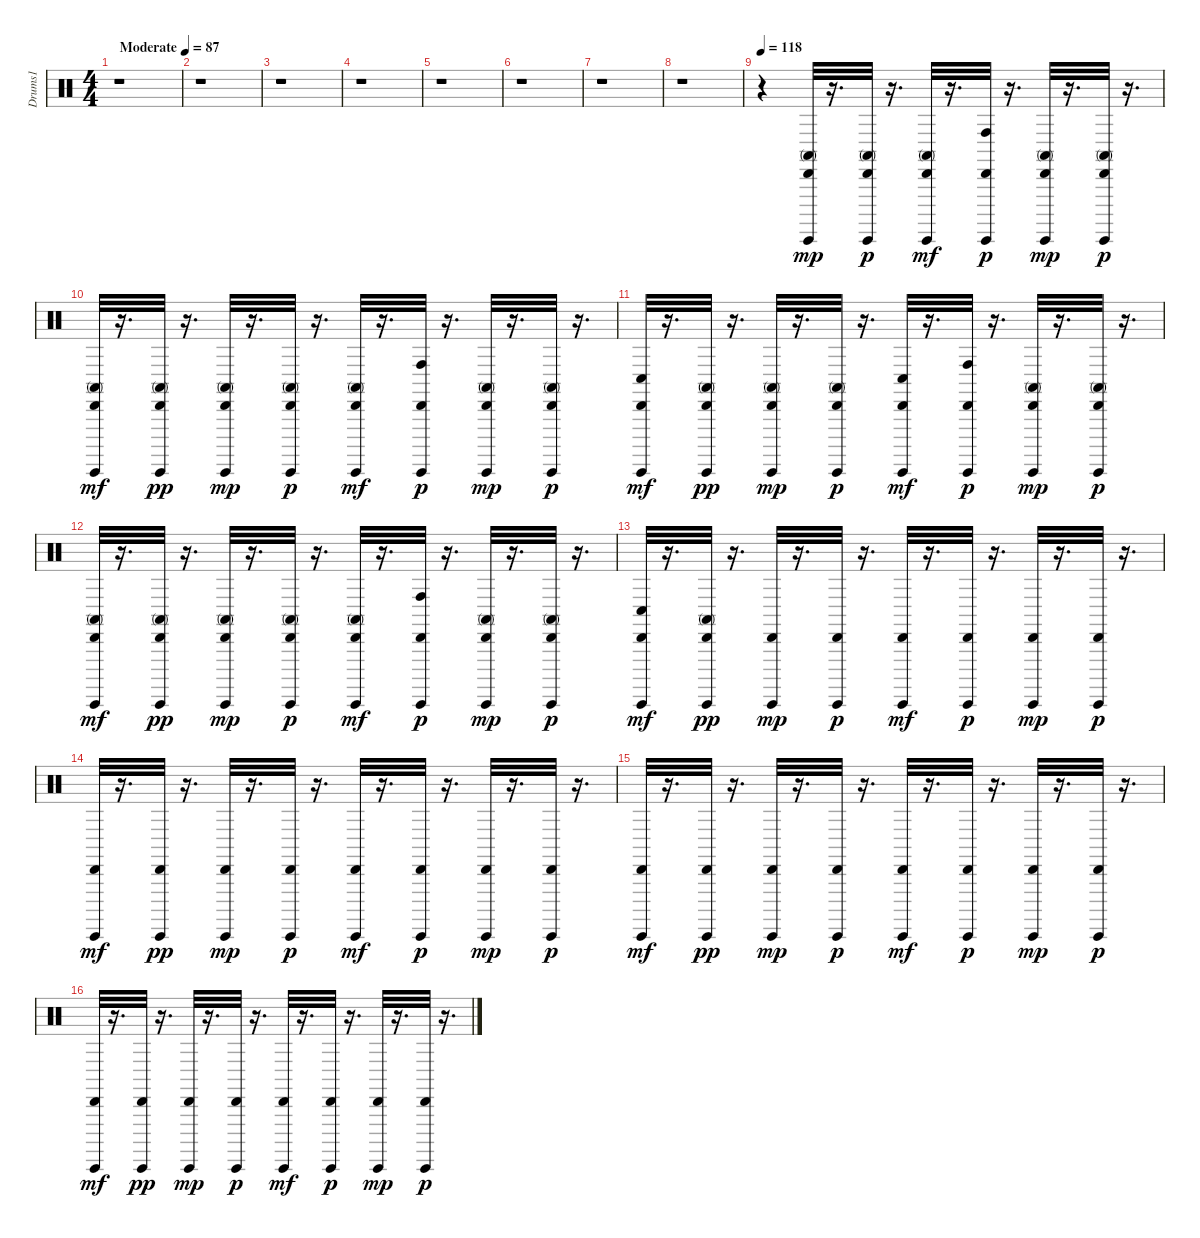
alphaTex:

\track ("Drums1" "Drums1") {instrument percussion}
\staff {score}
\articulation defaults
\ts (4 4)
\tempo (87 "Moderate")
\clef neutral
\ks c
r.1{dy mp} |
r.1 |
r.1 |
r.1 |
r.1 |
r.1 |
r.1 |
r.1 |
\tempo 118
r.4 ("Conga high (mute)" "Guiro (hit)" "Cabasa (hit)").32{balance 8} r.16{d} ("Conga high (mute)" "Guiro (hit)" "Cabasa (hit)").32{dy p} r.16{d} ("Conga high (mute)" "Guiro (hit)" "Cabasa (hit)").32{dy mf} r.16{d} ("Conga high (hit)" "Guiro (hit)" "Cabasa (hit)").32{dy p} r.16{d} ("Conga high (mute)" "Guiro (hit)" "Cabasa (hit)").32{dy mp} r.16{d} ("Conga high (mute)" "Guiro (hit)" "Cabasa (hit)").32{dy p} r.16{d} |
("Conga high (mute)" "Guiro (hit)" "Cabasa (hit)").32{dy mf} r.16{d} ("Conga high (mute)" "Guiro (hit)" "Cabasa (hit)").32{dy pp} r.16{d} ("Conga high (mute)" "Guiro (hit)" "Cabasa (hit)").32{dy mp} r.16{d} ("Conga high (mute)" "Guiro (hit)" "Cabasa (hit)").32{dy p} r.16{d} ("Conga high (mute)" "Guiro (hit)" "Cabasa (hit)").32{dy mf} r.16{d} ("Conga high (hit)" "Guiro (hit)" "Cabasa (hit)").32{dy p} r.16{d} ("Conga high (mute)" "Guiro (hit)" "Cabasa (hit)").32{dy mp} r.16{d} ("Conga high (mute)" "Guiro (hit)" "Cabasa (hit)").32{dy p} r.16{d} |
("Conga low (hit)" "Guiro (hit)" "Cabasa (hit)").32{dy mf} r.16{d} ("Conga high (mute)" "Guiro (hit)" "Cabasa (hit)").32{dy pp} r.16{d} ("Conga high (mute)" "Guiro (hit)" "Cabasa (hit)").32{dy mp} r.16{d} ("Conga high (mute)" "Guiro (hit)" "Cabasa (hit)").32{dy p} r.16{d} ("Conga low (hit)" "Guiro (hit)" "Cabasa (hit)").32{dy mf} r.16{d} ("Conga high (hit)" "Guiro (hit)" "Cabasa (hit)").32{dy p} r.16{d} ("Conga high (mute)" "Guiro (hit)" "Cabasa (hit)").32{dy mp} r.16{d} ("Conga high (mute)" "Guiro (hit)" "Cabasa (hit)").32{dy p} r.16{d} |
("Conga high (mute)" "Guiro (hit)" "Cabasa (hit)").32{dy mf} r.16{d} ("Conga high (mute)" "Guiro (hit)" "Cabasa (hit)").32{dy pp} r.16{d} ("Conga high (mute)" "Guiro (hit)" "Cabasa (hit)").32{dy mp} r.16{d} ("Conga high (mute)" "Guiro (hit)" "Cabasa (hit)").32{dy p} r.16{d} ("Conga high (mute)" "Guiro (hit)" "Cabasa (hit)").32{dy mf} r.16{d} ("Conga high (hit)" "Guiro (hit)" "Cabasa (hit)").32{dy p} r.16{d} ("Conga high (mute)" "Guiro (hit)" "Cabasa (hit)").32{dy mp} r.16{d} ("Conga high (mute)" "Guiro (hit)" "Cabasa (hit)").32{dy p} r.16{d} |
("Conga low (hit)" "Guiro (hit)" "Cabasa (hit)").32{dy mf} r.16{d} ("Conga high (mute)" "Guiro (hit)" "Cabasa (hit)").32{dy pp} r.16{d} ("Guiro (hit)" "Cabasa (hit)").32{dy mp} r.16{d} ("Guiro (hit)" "Cabasa (hit)").32{dy p} r.16{d} ("Guiro (hit)" "Cabasa (hit)").32{dy mf} r.16{d} ("Guiro (hit)" "Cabasa (hit)").32{dy p} r.16{d} ("Guiro (hit)" "Cabasa (hit)").32{dy mp} r.16{d} ("Guiro (hit)" "Cabasa (hit)").32{dy p} r.16{d} |
("Guiro (hit)" "Cabasa (hit)").32{dy mf} r.16{d} ("Guiro (hit)" "Cabasa (hit)").32{dy pp} r.16{d} ("Guiro (hit)" "Cabasa (hit)").32{dy mp} r.16{d} ("Guiro (hit)" "Cabasa (hit)").32{dy p} r.16{d} ("Guiro (hit)" "Cabasa (hit)").32{dy mf} r.16{d} ("Guiro (hit)" "Cabasa (hit)").32{dy p} r.16{d} ("Guiro (hit)" "Cabasa (hit)").32{dy mp} r.16{d} ("Guiro (hit)" "Cabasa (hit)").32{dy p} r.16{d} |
("Guiro (hit)" "Cabasa (hit)").32{dy mf} r.16{d} ("Guiro (hit)" "Cabasa (hit)").32{dy pp} r.16{d} ("Guiro (hit)" "Cabasa (hit)").32{dy mp} r.16{d} ("Guiro (hit)" "Cabasa (hit)").32{dy p} r.16{d} ("Guiro (hit)" "Cabasa (hit)").32{dy mf} r.16{d} ("Guiro (hit)" "Cabasa (hit)").32{dy p} r.16{d} ("Guiro (hit)" "Cabasa (hit)").32{dy mp} r.16{d} ("Guiro (hit)" "Cabasa (hit)").32{dy p} r.16{d} |
("Guiro (hit)" "Cabasa (hit)").32{dy mf} r.16{d} ("Guiro (hit)" "Cabasa (hit)").32{dy pp} r.16{d} ("Guiro (hit)" "Cabasa (hit)").32{dy mp} r.16{d} ("Guiro (hit)" "Cabasa (hit)").32{dy p} r.16{d} ("Guiro (hit)" "Cabasa (hit)").32{dy mf} r.16{d} ("Guiro (hit)" "Cabasa (hit)").32{dy p} r.16{d} ("Guiro (hit)" "Cabasa (hit)").32{dy mp} r.16{d} ("Guiro (hit)" "Cabasa (hit)").32{dy p} r.16{d}
